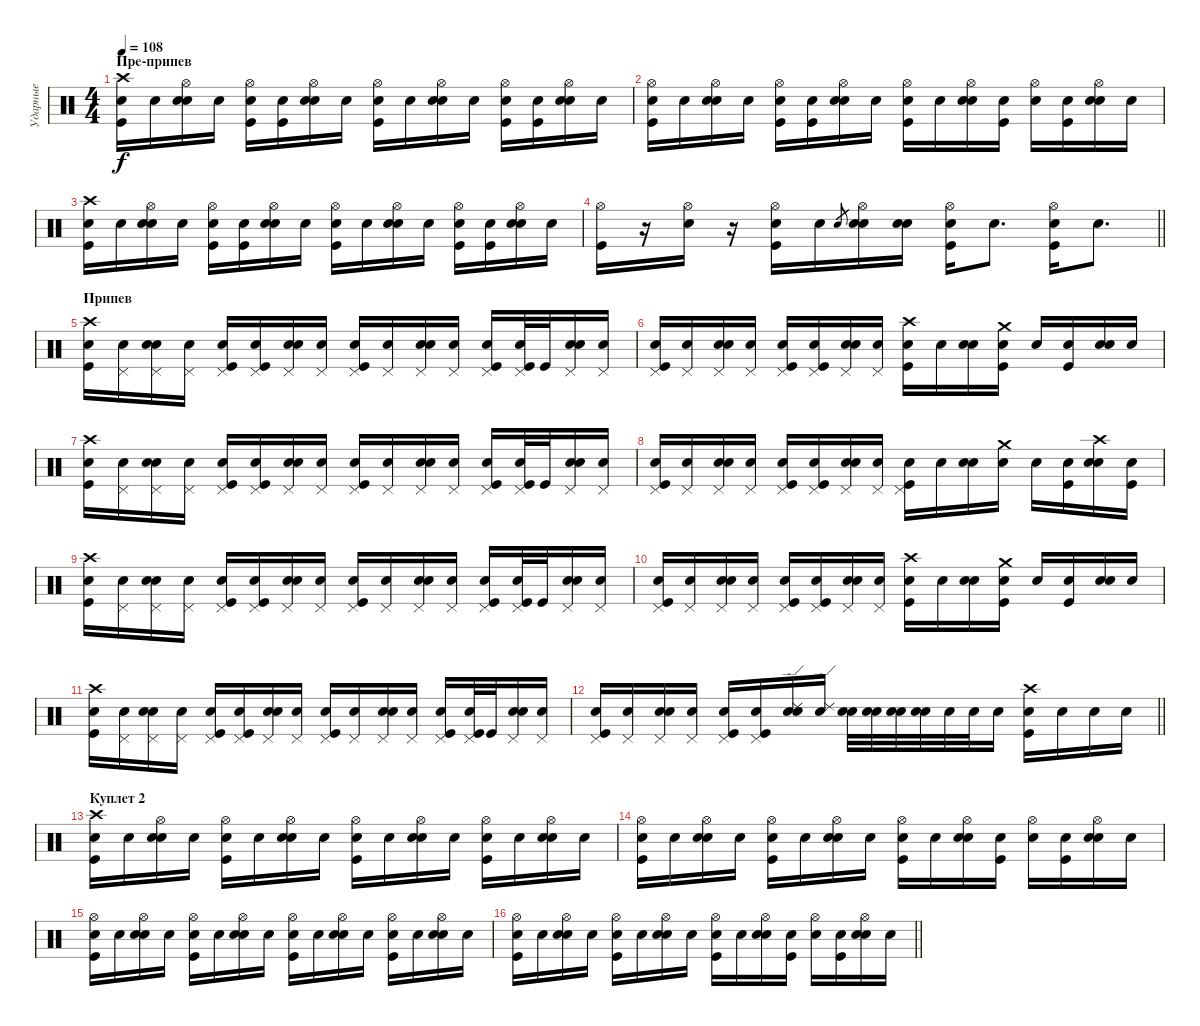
\track ("Ударные" "Ударные") {instrument percussion}
\staff {score}
\articulation defaults
\ts (4 4)
\section ("" "Пре-припев")
\tempo 108
\clef neutral
\ks c
("Crash high (hit)" "Kick (hit)" "Snare (hit)"{x}).16{dy f} "Snare (hit)"{x}.16 ("Snare (hit) 2" "Hi-Hat (open)" "Snare (hit)"{x}).16 "Snare (hit)"{x}.16 ("Kick (hit)" "Hi-Hat (open)" "Snare (hit)"{x}).16 ("Kick (hit)" "Snare (hit)"{x}).16 ("Snare (hit) 2" "Hi-Hat (open)" "Snare (hit)"{x}).16 "Snare (hit)"{x}.16 ("Kick (hit)" "Hi-Hat (open)" "Snare (hit)"{x}).16 "Snare (hit)"{x}.16 ("Snare (hit) 2" "Hi-Hat (open)" "Snare (hit)"{x}).16 "Snare (hit)"{x}.16 ("Kick (hit)" "Hi-Hat (open)" "Snare (hit)"{x}).16 ("Kick (hit)" "Snare (hit)"{x}).16 ("Snare (hit) 2" "Hi-Hat (open)" "Snare (hit)"{x}).16 "Snare (hit)"{x}.16 |
("Hi-Hat (open)" "Kick (hit)" "Snare (hit)"{x}).16 "Snare (hit)"{x}.16 ("Snare (hit) 2" "Hi-Hat (open)" "Snare (hit)"{x}).16 "Snare (hit)"{x}.16 ("Kick (hit)" "Hi-Hat (open)" "Snare (hit)"{x}).16 ("Kick (hit)" "Snare (hit)"{x}).16 ("Snare (hit) 2" "Hi-Hat (open)" "Snare (hit)"{x}).16 "Snare (hit)"{x}.16 ("Kick (hit)" "Hi-Hat (open)" "Snare (hit)"{x}).16 "Snare (hit)"{x}.16 ("Snare (hit) 2" "Hi-Hat (open)" "Snare (hit)"{x}).16 ("Kick (hit)" "Snare (hit)"{x}).16 ("Hi-Hat (open)" "Snare (hit)"{x}).16 ("Kick (hit)" "Snare (hit)"{x}).16 ("Snare (hit) 2" "Hi-Hat (open)" "Snare (hit)"{x}).16 "Snare (hit)"{x}.16 |
("Crash high (hit)" "Kick (hit)" "Snare (hit)"{x}).16 "Snare (hit)"{x}.16 ("Snare (hit) 2" "Hi-Hat (open)" "Snare (hit)"{x}).16 "Snare (hit)"{x}.16 ("Kick (hit)" "Hi-Hat (open)" "Snare (hit)"{x}).16 ("Kick (hit)" "Snare (hit)"{x}).16 ("Snare (hit) 2" "Hi-Hat (open)" "Snare (hit)"{x}).16 "Snare (hit)"{x}.16 ("Kick (hit)" "Hi-Hat (open)" "Snare (hit)"{x}).16 "Snare (hit)"{x}.16 ("Snare (hit) 2" "Hi-Hat (open)" "Snare (hit)"{x}).16 "Snare (hit)"{x}.16 ("Kick (hit)" "Hi-Hat (open)" "Snare (hit)"{x}).16 ("Kick (hit)" "Snare (hit)"{x}).16 ("Snare (hit) 2" "Hi-Hat (open)" "Snare (hit)"{x}).16 "Snare (hit)"{x}.16 |
\barLineRight lightlight
("Kick (hit)" "Hi-Hat (open)").16 r.16 ("Snare (hit) 2" "Hi-Hat (open)").16 r.16 ("Hi-Hat (open)" "Kick (hit)" "Snare (hit)"{x}).16 "Snare (hit)"{x}.16 "Electric Snare (hit)".8{gr} ("Electric Snare (hit)" "Hi-Hat (open)" "Snare (hit)"{x}).16 ("Electric Snare (hit)" "Snare (hit)"{x}).16 ("Kick (hit)" "Hi-Hat (open)" "Snare (hit)"{x}).16 "Snare (hit)"{x}.8{d} ("Kick (hit)" "Hi-Hat (open)" "Snare (hit)"{x}).16 "Snare (hit)"{x}.8{d} |
\section ("" "Припев")
("Crash high (hit)" "Kick (hit)" "Snare (hit)"{x}).16 ("Pedal Hi-Hat (hit)" "Snare (hit)"{x}).16 ("Snare (hit) 2" "Pedal Hi-Hat (hit)" "Snare (hit)"{x}).16 ("Pedal Hi-Hat (hit)" "Snare (hit)"{x}).16 ("Kick (hit)" "Pedal Hi-Hat (hit)" "Snare (hit)"{x}).16 ("Kick (hit)" "Pedal Hi-Hat (hit)" "Snare (hit)"{x}).16 ("Snare (hit) 2" "Pedal Hi-Hat (hit)" "Snare (hit)"{x}).16 ("Pedal Hi-Hat (hit)" "Snare (hit)"{x}).16 ("Kick (hit)" "Pedal Hi-Hat (hit)" "Snare (hit)"{x}).16 ("Pedal Hi-Hat (hit)" "Snare (hit)"{x}).16 ("Snare (hit) 2" "Pedal Hi-Hat (hit)" "Snare (hit)"{x}).16 ("Pedal Hi-Hat (hit)" "Snare (hit)"{x}).16 ("Kick (hit)" "Pedal Hi-Hat (hit)" "Snare (hit)"{x}).16 ("Kick (hit)" "Pedal Hi-Hat (hit)" "Snare (hit)"{x}).32 "Kick (hit)".32 ("Snare (hit) 2" "Pedal Hi-Hat (hit)" "Snare (hit)"{x}).16 ("Pedal Hi-Hat (hit)" "Snare (hit)"{x}).16 |
("Kick (hit)" "Pedal Hi-Hat (hit)" "Snare (hit)"{x}).16 ("Pedal Hi-Hat (hit)" "Snare (hit)"{x}).16 ("Snare (hit) 2" "Pedal Hi-Hat (hit)" "Snare (hit)"{x}).16 ("Pedal Hi-Hat (hit)" "Snare (hit)"{x}).16 ("Kick (hit)" "Pedal Hi-Hat (hit)" "Snare (hit)"{x}).16 ("Kick (hit)" "Pedal Hi-Hat (hit)" "Snare (hit)"{x}).16 ("Snare (hit) 2" "Pedal Hi-Hat (hit)" "Snare (hit)"{x}).16 ("Pedal Hi-Hat (hit)" "Snare (hit)"{x}).16 ("Kick (hit)" "Crash high (hit)" "Snare (hit)"{x}).16 "Snare (hit)"{x}.16 ("Electric Snare (hit)" "Snare (hit)"{x}).16 ("Kick (hit)" "Crash medium (hit)" "Snare (hit)"{x}).16 "Snare (hit)"{x}.16 ("Kick (hit)" "Snare (hit)"{x}).16 ("Electric Snare (hit)" "Snare (hit)"{x}).16 "Snare (hit)"{x}.16 |
("Crash high (hit)" "Kick (hit)" "Snare (hit)"{x}).16 ("Pedal Hi-Hat (hit)" "Snare (hit)"{x}).16 ("Snare (hit) 2" "Pedal Hi-Hat (hit)" "Snare (hit)"{x}).16 ("Pedal Hi-Hat (hit)" "Snare (hit)"{x}).16 ("Kick (hit)" "Pedal Hi-Hat (hit)" "Snare (hit)"{x}).16 ("Kick (hit)" "Pedal Hi-Hat (hit)" "Snare (hit)"{x}).16 ("Snare (hit) 2" "Pedal Hi-Hat (hit)" "Snare (hit)"{x}).16 ("Pedal Hi-Hat (hit)" "Snare (hit)"{x}).16 ("Kick (hit)" "Pedal Hi-Hat (hit)" "Snare (hit)"{x}).16 ("Pedal Hi-Hat (hit)" "Snare (hit)"{x}).16 ("Snare (hit) 2" "Pedal Hi-Hat (hit)" "Snare (hit)"{x}).16 ("Pedal Hi-Hat (hit)" "Snare (hit)"{x}).16 ("Kick (hit)" "Pedal Hi-Hat (hit)" "Snare (hit)"{x}).16 ("Kick (hit)" "Pedal Hi-Hat (hit)" "Snare (hit)"{x}).32 "Kick (hit)".32 ("Snare (hit) 2" "Pedal Hi-Hat (hit)" "Snare (hit)"{x}).16 ("Pedal Hi-Hat (hit)" "Snare (hit)"{x}).16 |
("Kick (hit)" "Pedal Hi-Hat (hit)" "Snare (hit)"{x}).16 ("Pedal Hi-Hat (hit)" "Snare (hit)"{x}).16 ("Snare (hit) 2" "Pedal Hi-Hat (hit)" "Snare (hit)"{x}).16 ("Pedal Hi-Hat (hit)" "Snare (hit)"{x}).16 ("Kick (hit)" "Pedal Hi-Hat (hit)" "Snare (hit)"{x}).16 ("Kick (hit)" "Pedal Hi-Hat (hit)" "Snare (hit)"{x}).16 ("Snare (hit) 2" "Pedal Hi-Hat (hit)" "Snare (hit)"{x}).16 ("Pedal Hi-Hat (hit)" "Snare (hit)"{x}).16 ("Kick (hit)" "Pedal Hi-Hat (hit)" "Snare (hit)"{x}).16 "Snare (hit)"{x}.16 ("Electric Snare (hit)" "Snare (hit)"{x}).16 ("Crash medium (hit)" "Snare (hit)"{x}).16 "Snare (hit)"{x}.16 ("Kick (hit)" "Snare (hit)"{x}).16 ("Electric Snare (hit)" "Crash high (hit)" "Snare (hit)"{x}).16 ("Kick (hit)" "Snare (hit)"{x}).16 |
("Crash high (hit)" "Kick (hit)" "Snare (hit)"{x}).16 ("Pedal Hi-Hat (hit)" "Snare (hit)"{x}).16 ("Snare (hit) 2" "Pedal Hi-Hat (hit)" "Snare (hit)"{x}).16 ("Pedal Hi-Hat (hit)" "Snare (hit)"{x}).16 ("Kick (hit)" "Pedal Hi-Hat (hit)" "Snare (hit)"{x}).16 ("Kick (hit)" "Pedal Hi-Hat (hit)" "Snare (hit)"{x}).16 ("Snare (hit) 2" "Pedal Hi-Hat (hit)" "Snare (hit)"{x}).16 ("Pedal Hi-Hat (hit)" "Snare (hit)"{x}).16 ("Kick (hit)" "Pedal Hi-Hat (hit)" "Snare (hit)"{x}).16 ("Pedal Hi-Hat (hit)" "Snare (hit)"{x}).16 ("Snare (hit) 2" "Pedal Hi-Hat (hit)" "Snare (hit)"{x}).16 ("Pedal Hi-Hat (hit)" "Snare (hit)"{x}).16 ("Kick (hit)" "Pedal Hi-Hat (hit)" "Snare (hit)"{x}).16 ("Kick (hit)" "Pedal Hi-Hat (hit)" "Snare (hit)"{x}).32 "Kick (hit)".32 ("Snare (hit) 2" "Pedal Hi-Hat (hit)" "Snare (hit)"{x}).16 ("Pedal Hi-Hat (hit)" "Snare (hit)"{x}).16 |
("Kick (hit)" "Pedal Hi-Hat (hit)" "Snare (hit)"{x}).16 ("Pedal Hi-Hat (hit)" "Snare (hit)"{x}).16 ("Snare (hit) 2" "Pedal Hi-Hat (hit)" "Snare (hit)"{x}).16 ("Pedal Hi-Hat (hit)" "Snare (hit)"{x}).16 ("Kick (hit)" "Pedal Hi-Hat (hit)" "Snare (hit)"{x}).16 ("Kick (hit)" "Pedal Hi-Hat (hit)" "Snare (hit)"{x}).16 ("Snare (hit) 2" "Pedal Hi-Hat (hit)" "Snare (hit)"{x}).16 ("Pedal Hi-Hat (hit)" "Snare (hit)"{x}).16 ("Kick (hit)" "Crash high (hit)" "Snare (hit)"{x}).16 "Snare (hit)"{x}.16 ("Electric Snare (hit)" "Snare (hit)"{x}).16 ("Kick (hit)" "Crash medium (hit)" "Snare (hit)"{x}).16 "Snare (hit)"{x}.16 ("Kick (hit)" "Snare (hit)"{x}).16 ("Electric Snare (hit)" "Snare (hit)"{x}).16 "Snare (hit)"{x}.16 |
("Crash high (hit)" "Kick (hit)" "Snare (hit)"{x}).16 ("Pedal Hi-Hat (hit)" "Snare (hit)"{x}).16 ("Snare (hit) 2" "Pedal Hi-Hat (hit)" "Snare (hit)"{x}).16 ("Pedal Hi-Hat (hit)" "Snare (hit)"{x}).16 ("Kick (hit)" "Pedal Hi-Hat (hit)" "Snare (hit)"{x}).16 ("Kick (hit)" "Pedal Hi-Hat (hit)" "Snare (hit)"{x}).16 ("Snare (hit) 2" "Pedal Hi-Hat (hit)" "Snare (hit)"{x}).16 ("Pedal Hi-Hat (hit)" "Snare (hit)"{x}).16 ("Kick (hit)" "Pedal Hi-Hat (hit)" "Snare (hit)"{x}).16 ("Pedal Hi-Hat (hit)" "Snare (hit)"{x}).16 ("Snare (hit) 2" "Pedal Hi-Hat (hit)" "Snare (hit)"{x}).16 ("Pedal Hi-Hat (hit)" "Snare (hit)"{x}).16 ("Kick (hit)" "Pedal Hi-Hat (hit)" "Snare (hit)"{x}).16 ("Kick (hit)" "Pedal Hi-Hat (hit)" "Snare (hit)"{x}).32 "Kick (hit)".32 ("Snare (hit) 2" "Pedal Hi-Hat (hit)" "Snare (hit)"{x}).16 ("Pedal Hi-Hat (hit)" "Snare (hit)"{x}).16 |
\barLineRight lightlight
("Kick (hit)" "Pedal Hi-Hat (hit)" "Snare (hit)"{x}).16 ("Pedal Hi-Hat (hit)" "Snare (hit)"{x}).16 ("Snare (hit) 2" "Pedal Hi-Hat (hit)" "Snare (hit)"{x}).16 ("Pedal Hi-Hat (hit)" "Snare (hit)"{x}).16 ("Kick (hit)" "Pedal Hi-Hat (hit)" "Snare (hit)"{x}).16 ("Kick (hit)" "Pedal Hi-Hat (hit)" "Snare (hit)"{x}).16 ("Snare (hit) 2" "Ride (edge) 2" "Snare (hit)"{x}).16 ("Ride (edge) 2" "Snare (hit)"{x}).16 ("Electric Snare (hit)" "Snare (hit)"{x}).32 ("Electric Snare (hit)" "Snare (hit)"{x}).32 ("Electric Snare (hit)" "Snare (hit)"{x}).32 ("Electric Snare (hit)" "Snare (hit)"{x}).32 "Electric Snare (hit)".32 "Electric Snare (hit)".32 "Snare (hit)"{x}.16 ("Kick (hit)" "Crash high (hit)" "Snare (hit)"{x}).16 "Snare (hit)"{x}.16 "Snare (hit)"{x}.16 "Snare (hit)"{x}.16 |
\section ("" "Куплет 2")
("Crash high (hit)" "Kick (hit)" "Snare (hit)"{x}).16 "Snare (hit)"{x}.16 ("Snare (hit) 2" "Hi-Hat (open)" "Snare (hit)"{x}).16 "Snare (hit)"{x}.16 ("Kick (hit)" "Hi-Hat (open)" "Snare (hit)"{x}).16 "Snare (hit)"{x}.16 ("Snare (hit) 2" "Hi-Hat (open)" "Snare (hit)"{x}).16 "Snare (hit)"{x}.16 ("Kick (hit)" "Hi-Hat (open)" "Snare (hit)"{x}).16 "Snare (hit)"{x}.16 ("Snare (hit) 2" "Hi-Hat (open)" "Snare (hit)"{x}).16 "Snare (hit)"{x}.16 ("Kick (hit)" "Hi-Hat (open)" "Snare (hit)"{x}).16 "Snare (hit)"{x}.16 ("Snare (hit) 2" "Hi-Hat (open)" "Snare (hit)"{x}).16 "Snare (hit)"{x}.16 |
("Hi-Hat (open)" "Kick (hit)" "Snare (hit)"{x}).16 "Snare (hit)"{x}.16 ("Snare (hit) 2" "Hi-Hat (open)" "Snare (hit)"{x}).16 "Snare (hit)"{x}.16 ("Kick (hit)" "Hi-Hat (open)" "Snare (hit)"{x}).16 "Snare (hit)"{x}.16 ("Snare (hit) 2" "Hi-Hat (open)" "Snare (hit)"{x}).16 "Snare (hit)"{x}.16 ("Kick (hit)" "Hi-Hat (open)" "Snare (hit)"{x}).16 "Snare (hit)"{x}.16 ("Snare (hit) 2" "Hi-Hat (open)" "Snare (hit)"{x}).16 ("Kick (hit)" "Snare (hit)"{x}).16 ("Hi-Hat (open)" "Snare (hit)"{x}).16 ("Kick (hit)" "Snare (hit)"{x}).16 ("Snare (hit) 2" "Hi-Hat (open)" "Snare (hit)"{x}).16 "Snare (hit)"{x}.16 |
("Hi-Hat (open)" "Kick (hit)" "Snare (hit)"{x}).16 "Snare (hit)"{x}.16 ("Snare (hit) 2" "Hi-Hat (open)" "Snare (hit)"{x}).16 "Snare (hit)"{x}.16 ("Kick (hit)" "Hi-Hat (open)" "Snare (hit)"{x}).16 "Snare (hit)"{x}.16 ("Snare (hit) 2" "Hi-Hat (open)" "Snare (hit)"{x}).16 "Snare (hit)"{x}.16 ("Kick (hit)" "Hi-Hat (open)" "Snare (hit)"{x}).16 "Snare (hit)"{x}.16 ("Snare (hit) 2" "Hi-Hat (open)" "Snare (hit)"{x}).16 "Snare (hit)"{x}.16 ("Kick (hit)" "Hi-Hat (open)" "Snare (hit)"{x}).16 "Snare (hit)"{x}.16 ("Snare (hit) 2" "Hi-Hat (open)" "Snare (hit)"{x}).16 "Snare (hit)"{x}.16 |
\barLineRight lightlight
("Hi-Hat (open)" "Kick (hit)" "Snare (hit)"{x}).16 "Snare (hit)"{x}.16 ("Snare (hit) 2" "Hi-Hat (open)" "Snare (hit)"{x}).16 "Snare (hit)"{x}.16 ("Kick (hit)" "Hi-Hat (open)" "Snare (hit)"{x}).16 "Snare (hit)"{x}.16 ("Snare (hit) 2" "Hi-Hat (open)" "Snare (hit)"{x}).16 "Snare (hit)"{x}.16 ("Kick (hit)" "Hi-Hat (open)" "Snare (hit)"{x}).16 "Snare (hit)"{x}.16 ("Snare (hit) 2" "Hi-Hat (open)" "Snare (hit)"{x}).16 ("Kick (hit)" "Snare (hit)"{x}).16 ("Hi-Hat (open)" "Snare (hit)"{x}).16 ("Kick (hit)" "Snare (hit)"{x}).16 ("Snare (hit) 2" "Hi-Hat (open)" "Snare (hit)"{x}).16 "Snare (hit)"{x}.16
